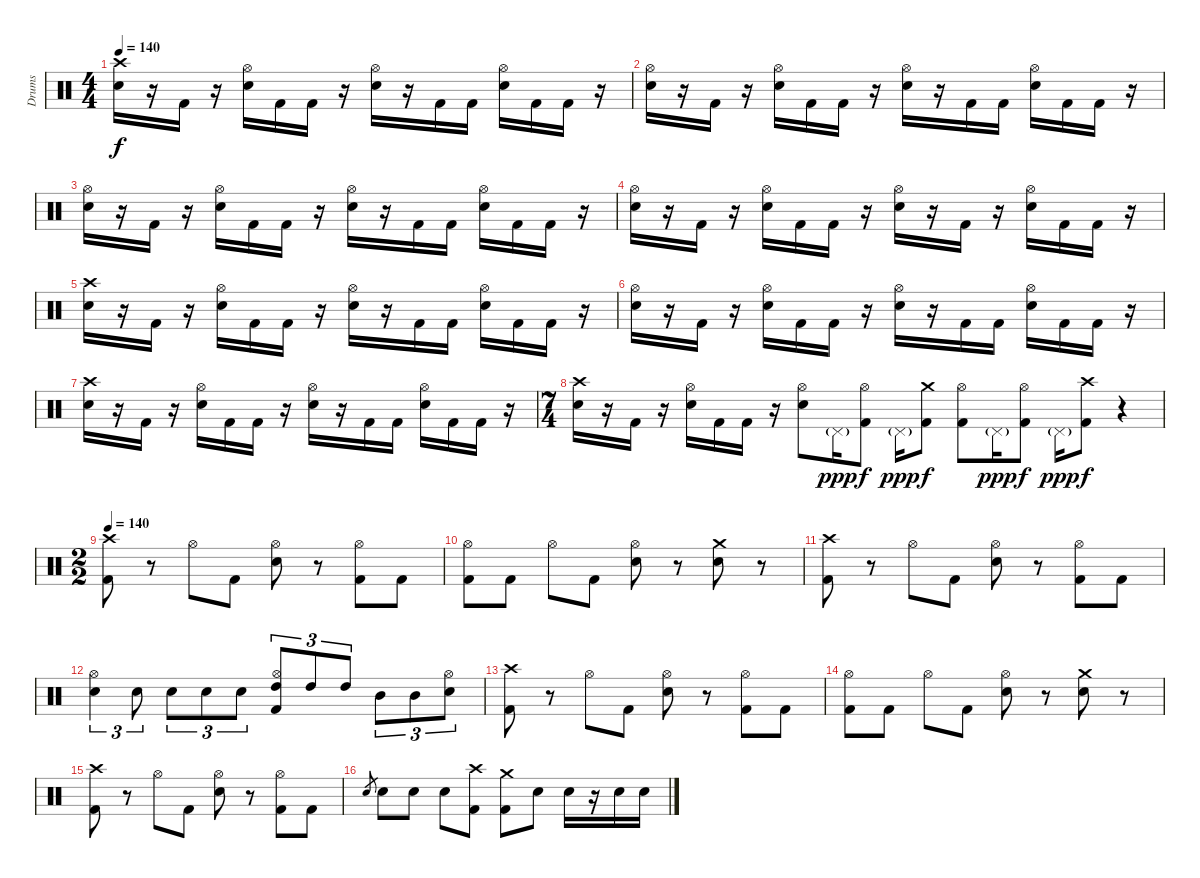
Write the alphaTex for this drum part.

\track ("Drums" "Drums") {instrument percussion}
\staff {score}
\articulation defaults
\ts (4 4)
\tempo 140
\clef neutral
\ks c
("Crash high (hit)" "Snare (hit) 2").16{dy f} r.16 "Kick (hit) 2".16 r.16 ("Hi-Hat (open)" "Snare (hit) 2").16 "Kick (hit) 2".16 "Kick (hit) 2".16 r.16 ("Hi-Hat (open)" "Snare (hit) 2").16 r.16 "Kick (hit) 2".16 "Kick (hit) 2".16 ("Hi-Hat (open)" "Snare (hit) 2").16 "Kick (hit) 2".16 "Kick (hit) 2".16 r.16 |
("Hi-Hat (open)" "Snare (hit) 2").16 r.16 "Kick (hit) 2".16 r.16 ("Hi-Hat (open)" "Snare (hit) 2").16 "Kick (hit) 2".16 "Kick (hit) 2".16 r.16 ("Hi-Hat (open)" "Snare (hit) 2").16 r.16 "Kick (hit) 2".16 "Kick (hit) 2".16 ("Hi-Hat (open)" "Snare (hit) 2").16 "Kick (hit) 2".16 "Kick (hit) 2".16 r.16 |
("Hi-Hat (open)" "Snare (hit) 2").16 r.16 "Kick (hit) 2".16 r.16 ("Hi-Hat (open)" "Snare (hit) 2").16 "Kick (hit) 2".16 "Kick (hit) 2".16 r.16 ("Hi-Hat (open)" "Snare (hit) 2").16 r.16 "Kick (hit) 2".16 "Kick (hit) 2".16 ("Hi-Hat (open)" "Snare (hit) 2").16 "Kick (hit) 2".16 "Kick (hit) 2".16 r.16 |
("Hi-Hat (open)" "Snare (hit) 2").16 r.16 "Kick (hit) 2".16 r.16 ("Hi-Hat (open)" "Snare (hit) 2").16 "Kick (hit) 2".16 "Kick (hit) 2".16 r.16 ("Hi-Hat (open)" "Snare (hit) 2").16 r.16 "Kick (hit) 2".16 r.16 ("Hi-Hat (open)" "Snare (hit) 2").16 "Kick (hit) 2".16 "Kick (hit) 2".16 r.16 |
("Crash high (hit)" "Snare (hit) 2").16 r.16 "Kick (hit) 2".16 r.16 ("Hi-Hat (open)" "Snare (hit) 2").16 "Kick (hit) 2".16 "Kick (hit) 2".16 r.16 ("Hi-Hat (open)" "Snare (hit) 2").16 r.16 "Kick (hit) 2".16 "Kick (hit) 2".16 ("Hi-Hat (open)" "Snare (hit) 2").16 "Kick (hit) 2".16 "Kick (hit) 2".16 r.16 |
("Hi-Hat (open)" "Snare (hit) 2").16 r.16 "Kick (hit) 2".16 r.16 ("Hi-Hat (open)" "Snare (hit) 2").16 "Kick (hit) 2".16 "Kick (hit) 2".16 r.16 ("Hi-Hat (open)" "Snare (hit) 2").16 r.16 "Kick (hit) 2".16 "Kick (hit) 2".16 ("Hi-Hat (open)" "Snare (hit) 2").16 "Kick (hit) 2".16 "Kick (hit) 2".16 r.16 |
("Crash high (hit)" "Snare (hit) 2").16 r.16 "Kick (hit) 2".16 r.16 ("Hi-Hat (open)" "Snare (hit) 2").16 "Kick (hit) 2".16 "Kick (hit) 2".16 r.16 ("Hi-Hat (open)" "Snare (hit) 2").16 r.16 "Kick (hit) 2".16 "Kick (hit) 2".16 ("Hi-Hat (open)" "Snare (hit) 2").16 "Kick (hit) 2".16 "Kick (hit) 2".16 r.16 |
\ts (7 4)
("Crash high (hit)" "Snare (hit) 2").16 r.16 "Kick (hit) 2".16 r.16 ("Hi-Hat (open)" "Snare (hit) 2").16 "Kick (hit) 2".16 "Kick (hit) 2".16 r.16 ("Hi-Hat (open)" "Snare (hit) 2").8 "Pedal Hi-Hat (hit)"{g}.16{dy ppp} ("Hi-Hat (open)" "Kick (hit) 2").8{dy f} "Pedal Hi-Hat (hit)"{g}.16{dy ppp} ("Crash medium (hit)" "Kick (hit) 2").8{dy f} ("Hi-Hat (open)" "Kick (hit) 2").8 "Pedal Hi-Hat (hit)"{g}.16{dy ppp} ("Hi-Hat (open)" "Kick (hit) 2").8{dy f} "Pedal Hi-Hat (hit)"{g}.16{dy ppp} ("Crash high (hit)" "Kick (hit) 2").8{dy f} r.4 |
\ts (2 2)
\tempo 140
("Crash high (hit)" "Kick (hit) 2").8 r.8 "Hi-Hat (open)".8 "Kick (hit) 2".8 ("Hi-Hat (open)" "Snare (hit) 2").8 r.8 ("Hi-Hat (open)" "Kick (hit) 2").8 "Kick (hit) 2".8 |
("Hi-Hat (open)" "Kick (hit) 2").8 "Kick (hit) 2".8 "Hi-Hat (open)".8 "Kick (hit) 2".8 ("Hi-Hat (open)" "Snare (hit) 2").8 r.8 ("Crash medium (hit)" "Snare (hit) 2").8 r.8 |
("Crash high (hit)" "Kick (hit) 2").8 r.8 "Hi-Hat (open)".8 "Kick (hit) 2".8 ("Hi-Hat (open)" "Snare (hit) 2").8 r.8 ("Hi-Hat (open)" "Kick (hit) 2").8 "Kick (hit) 2".8 |
("Hi-Hat (open)" "Snare (hit) 2").4{tu (3 2)} "Snare (hit) 2".8{tu (3 2)} "Snare (hit) 2".8{tu (3 2)} "Snare (hit) 2".8{tu (3 2)} "Snare (hit) 2".8{tu (3 2)} ("Hi-Hat (open)" "High Tom (hit)" "Kick (hit) 2").8{tu (3 2)} "High Tom (hit)".8{tu (3 2)} "High Tom (hit)".8{tu (3 2)} "Mid Tom (hit)".8{tu (3 2)} "Mid Tom (hit)".8{tu (3 2)} ("Hi-Hat (open)" "Snare (hit) 2").8{tu (3 2)} |
("Crash high (hit)" "Kick (hit) 2").8 r.8 "Hi-Hat (open)".8 "Kick (hit) 2".8 ("Hi-Hat (open)" "Snare (hit) 2").8 r.8 ("Hi-Hat (open)" "Kick (hit) 2").8 "Kick (hit) 2".8 |
("Hi-Hat (open)" "Kick (hit) 2").8 "Kick (hit) 2".8 "Hi-Hat (open)".8 "Kick (hit) 2".8 ("Hi-Hat (open)" "Snare (hit) 2").8 r.8 ("Crash medium (hit)" "Snare (hit) 2").8 r.8 |
("Crash high (hit)" "Kick (hit) 2").8 r.8 "Hi-Hat (open)".8 "Kick (hit) 2".8 ("Hi-Hat (open)" "Snare (hit) 2").8 r.8 ("Hi-Hat (open)" "Kick (hit) 2").8 "Kick (hit) 2".8 |
"Snare (hit) 2".8{gr} "Snare (hit) 2".8 "Snare (hit) 2".8 "Snare (hit) 2".8 ("Crash high (hit)" "Kick (hit) 2").8 ("Crash medium (hit)" "Kick (hit) 2").8 "Snare (hit) 2".8 "Snare (hit) 2".16 r.16 "Snare (hit) 2".16 "Snare (hit) 2".16
